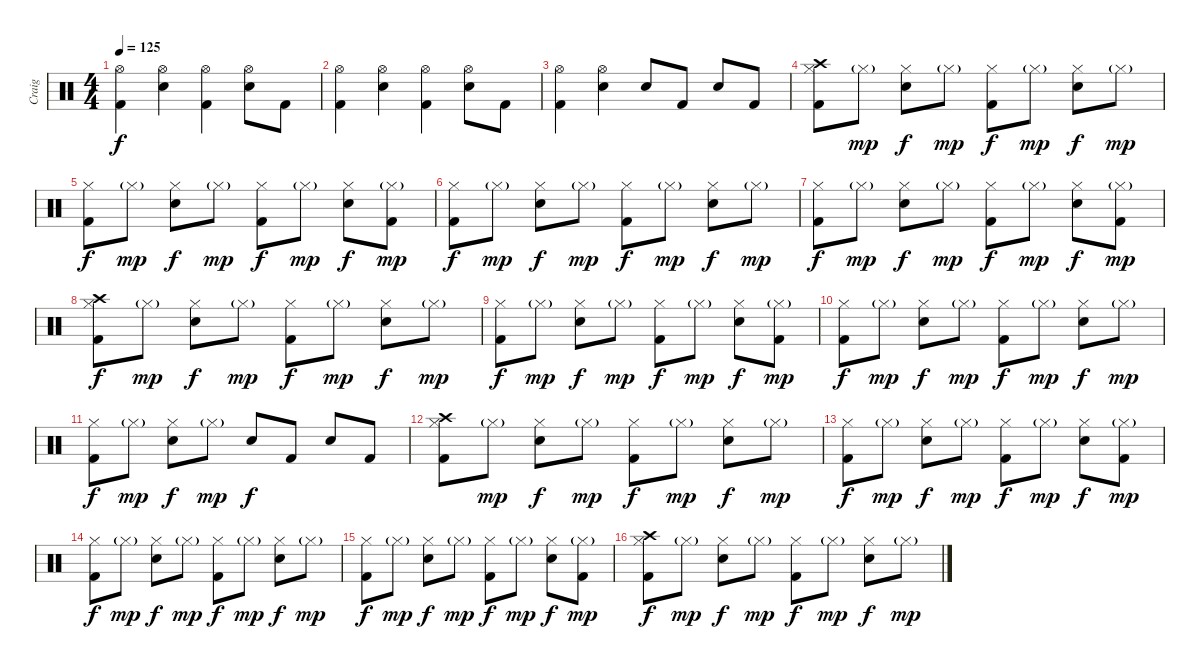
\track ("Craig" "Craig") {instrument percussion}
\staff {score}
\articulation defaults
\ts (4 4)
\tempo 125
\clef neutral
\ks c
("Hi-Hat (open)" "Kick (hit) 2").4{dy f} ("Hi-Hat (open)" "Snare (hit) 2").4 ("Hi-Hat (open)" "Kick (hit) 2").4 ("Hi-Hat (open)" "Snare (hit) 2").8 "Kick (hit) 2".8 |
("Hi-Hat (open)" "Kick (hit) 2").4 ("Hi-Hat (open)" "Snare (hit) 2").4 ("Hi-Hat (open)" "Kick (hit) 2").4 ("Hi-Hat (open)" "Snare (hit) 2").8 "Kick (hit) 2".8 |
("Hi-Hat (open)" "Kick (hit) 2").4 ("Hi-Hat (open)" "Snare (hit) 2").4 "Snare (hit) 2".8 "Kick (hit) 2".8 "Snare (hit) 2".8 "Kick (hit) 2".8 |
("Crash high (hit)" "Hi-Hat (closed)" "Kick (hit) 2").8 "Hi-Hat (closed)"{g}.8{dy mp} ("Hi-Hat (closed)" "Snare (hit) 2").8{dy f} "Hi-Hat (closed)"{g}.8{dy mp} ("Hi-Hat (closed)" "Kick (hit) 2").8{dy f} "Hi-Hat (closed)"{g}.8{dy mp} ("Hi-Hat (closed)" "Snare (hit) 2").8{dy f} "Hi-Hat (closed)"{g}.8{dy mp} |
("Hi-Hat (closed)" "Kick (hit) 2").8{dy f} "Hi-Hat (closed)"{g}.8{dy mp} ("Hi-Hat (closed)" "Snare (hit) 2").8{dy f} "Hi-Hat (closed)"{g}.8{dy mp} ("Hi-Hat (closed)" "Kick (hit) 2").8{dy f} "Hi-Hat (closed)"{g}.8{dy mp} ("Hi-Hat (closed)" "Snare (hit) 2").8{dy f} ("Hi-Hat (closed)"{g} "Kick (hit) 2").8{dy mp} |
("Hi-Hat (closed)" "Kick (hit) 2").8{dy f} "Hi-Hat (closed)"{g}.8{dy mp} ("Hi-Hat (closed)" "Snare (hit) 2").8{dy f} "Hi-Hat (closed)"{g}.8{dy mp} ("Hi-Hat (closed)" "Kick (hit) 2").8{dy f} "Hi-Hat (closed)"{g}.8{dy mp} ("Hi-Hat (closed)" "Snare (hit) 2").8{dy f} "Hi-Hat (closed)"{g}.8{dy mp} |
("Hi-Hat (closed)" "Kick (hit) 2").8{dy f} "Hi-Hat (closed)"{g}.8{dy mp} ("Hi-Hat (closed)" "Snare (hit) 2").8{dy f} "Hi-Hat (closed)"{g}.8{dy mp} ("Hi-Hat (closed)" "Kick (hit) 2").8{dy f} "Hi-Hat (closed)"{g}.8{dy mp} ("Hi-Hat (closed)" "Snare (hit) 2").8{dy f} ("Hi-Hat (closed)"{g} "Kick (hit) 2").8{dy mp} |
("Crash high (hit)" "Hi-Hat (closed)" "Kick (hit) 2").8{dy f} "Hi-Hat (closed)"{g}.8{dy mp} ("Hi-Hat (closed)" "Snare (hit) 2").8{dy f} "Hi-Hat (closed)"{g}.8{dy mp} ("Hi-Hat (closed)" "Kick (hit) 2").8{dy f} "Hi-Hat (closed)"{g}.8{dy mp} ("Hi-Hat (closed)" "Snare (hit) 2").8{dy f} "Hi-Hat (closed)"{g}.8{dy mp} |
("Hi-Hat (closed)" "Kick (hit) 2").8{dy f} "Hi-Hat (closed)"{g}.8{dy mp} ("Hi-Hat (closed)" "Snare (hit) 2").8{dy f} "Hi-Hat (closed)"{g}.8{dy mp} ("Hi-Hat (closed)" "Kick (hit) 2").8{dy f} "Hi-Hat (closed)"{g}.8{dy mp} ("Hi-Hat (closed)" "Snare (hit) 2").8{dy f} ("Hi-Hat (closed)"{g} "Kick (hit) 2").8{dy mp} |
("Hi-Hat (closed)" "Kick (hit) 2").8{dy f} "Hi-Hat (closed)"{g}.8{dy mp} ("Hi-Hat (closed)" "Snare (hit) 2").8{dy f} "Hi-Hat (closed)"{g}.8{dy mp} ("Hi-Hat (closed)" "Kick (hit) 2").8{dy f} "Hi-Hat (closed)"{g}.8{dy mp} ("Hi-Hat (closed)" "Snare (hit) 2").8{dy f} "Hi-Hat (closed)"{g}.8{dy mp} |
("Hi-Hat (closed)" "Kick (hit) 2").8{dy f} "Hi-Hat (closed)"{g}.8{dy mp} ("Hi-Hat (closed)" "Snare (hit) 2").8{dy f} "Hi-Hat (closed)"{g}.8{dy mp} "Snare (hit) 2".8{dy f} "Kick (hit) 2".8 "Snare (hit) 2".8 "Kick (hit) 2".8 |
("Crash high (hit)" "Hi-Hat (closed)" "Kick (hit) 2").8 "Hi-Hat (closed)"{g}.8{dy mp} ("Hi-Hat (closed)" "Snare (hit) 2").8{dy f} "Hi-Hat (closed)"{g}.8{dy mp} ("Hi-Hat (closed)" "Kick (hit) 2").8{dy f} "Hi-Hat (closed)"{g}.8{dy mp} ("Hi-Hat (closed)" "Snare (hit) 2").8{dy f} "Hi-Hat (closed)"{g}.8{dy mp} |
("Hi-Hat (closed)" "Kick (hit) 2").8{dy f} "Hi-Hat (closed)"{g}.8{dy mp} ("Hi-Hat (closed)" "Snare (hit) 2").8{dy f} "Hi-Hat (closed)"{g}.8{dy mp} ("Hi-Hat (closed)" "Kick (hit) 2").8{dy f} "Hi-Hat (closed)"{g}.8{dy mp} ("Hi-Hat (closed)" "Snare (hit) 2").8{dy f} ("Hi-Hat (closed)"{g} "Kick (hit) 2").8{dy mp} |
("Hi-Hat (closed)" "Kick (hit) 2").8{dy f} "Hi-Hat (closed)"{g}.8{dy mp} ("Hi-Hat (closed)" "Snare (hit) 2").8{dy f} "Hi-Hat (closed)"{g}.8{dy mp} ("Hi-Hat (closed)" "Kick (hit) 2").8{dy f} "Hi-Hat (closed)"{g}.8{dy mp} ("Hi-Hat (closed)" "Snare (hit) 2").8{dy f} "Hi-Hat (closed)"{g}.8{dy mp} |
("Hi-Hat (closed)" "Kick (hit) 2").8{dy f} "Hi-Hat (closed)"{g}.8{dy mp} ("Hi-Hat (closed)" "Snare (hit) 2").8{dy f} "Hi-Hat (closed)"{g}.8{dy mp} ("Hi-Hat (closed)" "Kick (hit) 2").8{dy f} "Hi-Hat (closed)"{g}.8{dy mp} ("Hi-Hat (closed)" "Snare (hit) 2").8{dy f} ("Hi-Hat (closed)"{g} "Kick (hit) 2").8{dy mp} |
("Crash high (hit)" "Hi-Hat (closed)" "Kick (hit) 2").8{dy f} "Hi-Hat (closed)"{g}.8{dy mp} ("Hi-Hat (closed)" "Snare (hit) 2").8{dy f} "Hi-Hat (closed)"{g}.8{dy mp} ("Hi-Hat (closed)" "Kick (hit) 2").8{dy f} "Hi-Hat (closed)"{g}.8{dy mp} ("Hi-Hat (closed)" "Snare (hit) 2").8{dy f} "Hi-Hat (closed)"{g}.8{dy mp}
